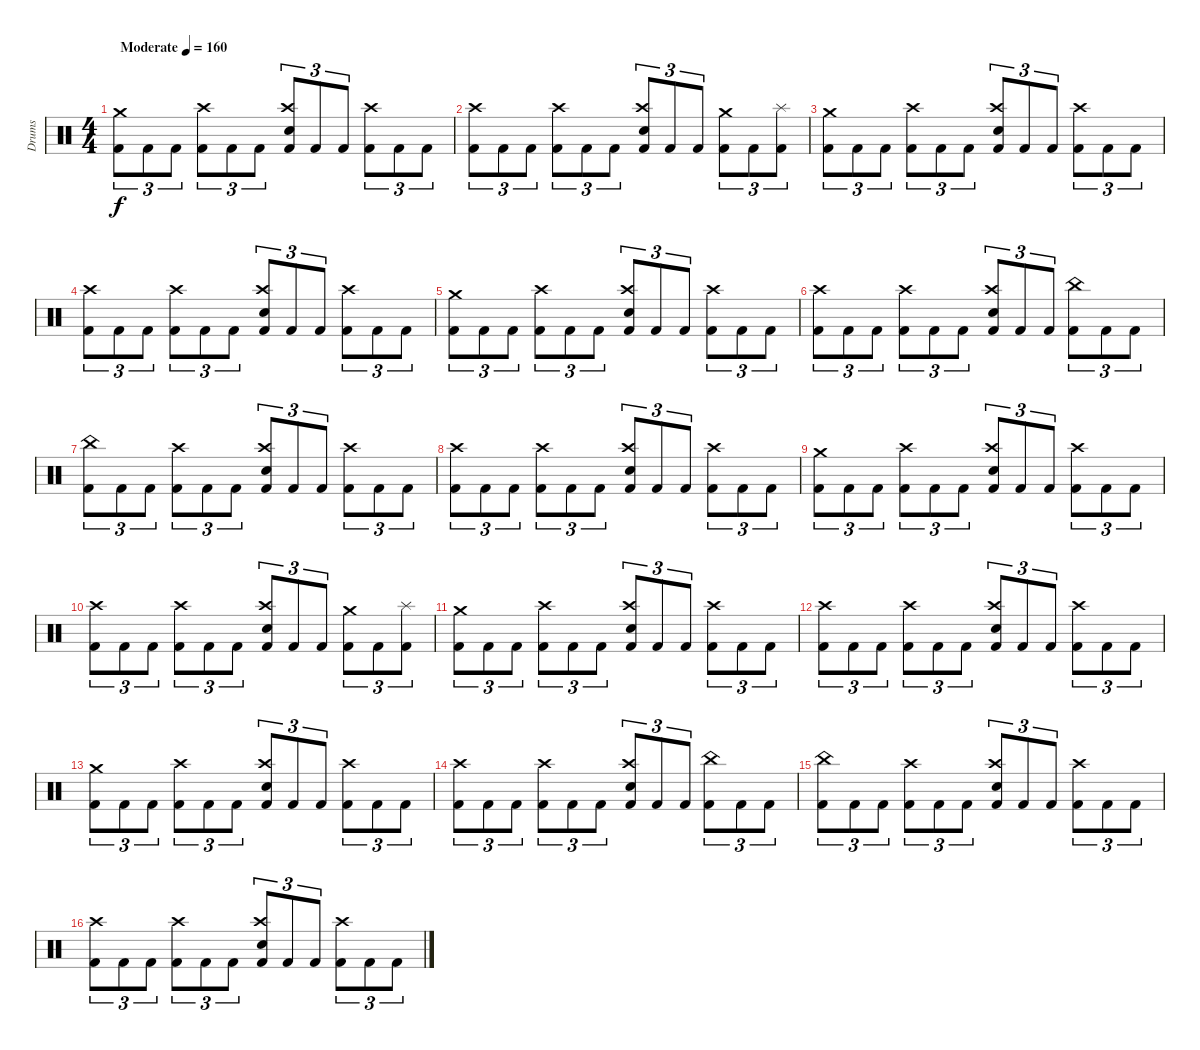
\track ("Drums" "Drums") {instrument percussion}
\staff
\articulation defaults
\ts (4 4)
\tempo (160 "Moderate")
\clef neutral
\ks c
("Crash medium (hit)" "Kick (hit) 2").8{tu (3 2) dy f} "Kick (hit) 2".8{tu (3 2)} "Kick (hit) 2".8{tu (3 2)} ("Crash high (hit)" "Kick (hit) 2").8{tu (3 2)} "Kick (hit) 2".8{tu (3 2)} "Kick (hit) 2".8{tu (3 2)} ("Crash high (hit)" "Electric Snare (hit)" "Kick (hit) 2").8{tu (3 2)} "Kick (hit) 2".8{tu (3 2)} "Kick (hit) 2".8{tu (3 2)} ("Crash high (hit)" "Kick (hit) 2").8{tu (3 2)} "Kick (hit) 2".8{tu (3 2)} "Kick (hit) 2".8{tu (3 2)} |
("Crash high (hit)" "Kick (hit) 2").8{tu (3 2)} "Kick (hit) 2".8{tu (3 2)} "Kick (hit) 2".8{tu (3 2)} ("Crash high (hit)" "Kick (hit) 2").8{tu (3 2)} "Kick (hit) 2".8{tu (3 2)} "Kick (hit) 2".8{tu (3 2)} ("Crash high (hit)" "Electric Snare (hit)" "Kick (hit) 2").8{tu (3 2)} "Kick (hit) 2".8{tu (3 2)} "Kick (hit) 2".8{tu (3 2)} ("Crash medium (hit)" "Kick (hit) 2").8{tu (3 2)} "Kick (hit) 2".8{tu (3 2)} ("Splash (hit)" "Kick (hit) 2").8{tu (3 2)} |
("Crash medium (hit)" "Kick (hit) 2").8{tu (3 2)} "Kick (hit) 2".8{tu (3 2)} "Kick (hit) 2".8{tu (3 2)} ("Crash high (hit)" "Kick (hit) 2").8{tu (3 2)} "Kick (hit) 2".8{tu (3 2)} "Kick (hit) 2".8{tu (3 2)} ("Crash high (hit)" "Electric Snare (hit)" "Kick (hit) 2").8{tu (3 2)} "Kick (hit) 2".8{tu (3 2)} "Kick (hit) 2".8{tu (3 2)} ("Crash high (hit)" "Kick (hit) 2").8{tu (3 2)} "Kick (hit) 2".8{tu (3 2)} "Kick (hit) 2".8{tu (3 2)} |
("Crash high (hit)" "Kick (hit) 2").8{tu (3 2)} "Kick (hit) 2".8{tu (3 2)} "Kick (hit) 2".8{tu (3 2)} ("Crash high (hit)" "Kick (hit) 2").8{tu (3 2)} "Kick (hit) 2".8{tu (3 2)} "Kick (hit) 2".8{tu (3 2)} ("Crash high (hit)" "Electric Snare (hit)" "Kick (hit) 2").8{tu (3 2)} "Kick (hit) 2".8{tu (3 2)} "Kick (hit) 2".8{tu (3 2)} ("Crash high (hit)" "Kick (hit) 2").8{tu (3 2)} "Kick (hit) 2".8{tu (3 2)} "Kick (hit) 2".8{tu (3 2)} |
("Crash medium (hit)" "Kick (hit) 2").8{tu (3 2)} "Kick (hit) 2".8{tu (3 2)} "Kick (hit) 2".8{tu (3 2)} ("Crash high (hit)" "Kick (hit) 2").8{tu (3 2)} "Kick (hit) 2".8{tu (3 2)} "Kick (hit) 2".8{tu (3 2)} ("Crash high (hit)" "Electric Snare (hit)" "Kick (hit) 2").8{tu (3 2)} "Kick (hit) 2".8{tu (3 2)} "Kick (hit) 2".8{tu (3 2)} ("Crash high (hit)" "Kick (hit) 2").8{tu (3 2)} "Kick (hit) 2".8{tu (3 2)} "Kick (hit) 2".8{tu (3 2)} |
("Crash high (hit)" "Kick (hit) 2").8{tu (3 2)} "Kick (hit) 2".8{tu (3 2)} "Kick (hit) 2".8{tu (3 2)} ("Crash high (hit)" "Kick (hit) 2").8{tu (3 2)} "Kick (hit) 2".8{tu (3 2)} "Kick (hit) 2".8{tu (3 2)} ("Crash high (hit)" "Electric Snare (hit)" "Kick (hit) 2").8{tu (3 2)} "Kick (hit) 2".8{tu (3 2)} "Kick (hit) 2".8{tu (3 2)} ("China (hit)" "Kick (hit) 2").8{tu (3 2)} "Kick (hit) 2".8{tu (3 2)} "Kick (hit) 2".8{tu (3 2)} |
("China (hit)" "Kick (hit) 2").8{tu (3 2)} "Kick (hit) 2".8{tu (3 2)} "Kick (hit) 2".8{tu (3 2)} ("Crash high (hit)" "Kick (hit) 2").8{tu (3 2)} "Kick (hit) 2".8{tu (3 2)} "Kick (hit) 2".8{tu (3 2)} ("Crash high (hit)" "Electric Snare (hit)" "Kick (hit) 2").8{tu (3 2)} "Kick (hit) 2".8{tu (3 2)} "Kick (hit) 2".8{tu (3 2)} ("Crash high (hit)" "Kick (hit) 2").8{tu (3 2)} "Kick (hit) 2".8{tu (3 2)} "Kick (hit) 2".8{tu (3 2)} |
("Crash high (hit)" "Kick (hit) 2").8{tu (3 2)} "Kick (hit) 2".8{tu (3 2)} "Kick (hit) 2".8{tu (3 2)} ("Crash high (hit)" "Kick (hit) 2").8{tu (3 2)} "Kick (hit) 2".8{tu (3 2)} "Kick (hit) 2".8{tu (3 2)} ("Crash high (hit)" "Electric Snare (hit)" "Kick (hit) 2").8{tu (3 2)} "Kick (hit) 2".8{tu (3 2)} "Kick (hit) 2".8{tu (3 2)} ("Crash high (hit)" "Kick (hit) 2").8{tu (3 2)} "Kick (hit) 2".8{tu (3 2)} "Kick (hit) 2".8{tu (3 2)} |
("Crash medium (hit)" "Kick (hit) 2").8{tu (3 2)} "Kick (hit) 2".8{tu (3 2)} "Kick (hit) 2".8{tu (3 2)} ("Crash high (hit)" "Kick (hit) 2").8{tu (3 2)} "Kick (hit) 2".8{tu (3 2)} "Kick (hit) 2".8{tu (3 2)} ("Crash high (hit)" "Electric Snare (hit)" "Kick (hit) 2").8{tu (3 2)} "Kick (hit) 2".8{tu (3 2)} "Kick (hit) 2".8{tu (3 2)} ("Crash high (hit)" "Kick (hit) 2").8{tu (3 2)} "Kick (hit) 2".8{tu (3 2)} "Kick (hit) 2".8{tu (3 2)} |
("Crash high (hit)" "Kick (hit) 2").8{tu (3 2)} "Kick (hit) 2".8{tu (3 2)} "Kick (hit) 2".8{tu (3 2)} ("Crash high (hit)" "Kick (hit) 2").8{tu (3 2)} "Kick (hit) 2".8{tu (3 2)} "Kick (hit) 2".8{tu (3 2)} ("Crash high (hit)" "Electric Snare (hit)" "Kick (hit) 2").8{tu (3 2)} "Kick (hit) 2".8{tu (3 2)} "Kick (hit) 2".8{tu (3 2)} ("Crash medium (hit)" "Kick (hit) 2").8{tu (3 2)} "Kick (hit) 2".8{tu (3 2)} ("Splash (hit)" "Kick (hit) 2").8{tu (3 2)} |
("Crash medium (hit)" "Kick (hit) 2").8{tu (3 2)} "Kick (hit) 2".8{tu (3 2)} "Kick (hit) 2".8{tu (3 2)} ("Crash high (hit)" "Kick (hit) 2").8{tu (3 2)} "Kick (hit) 2".8{tu (3 2)} "Kick (hit) 2".8{tu (3 2)} ("Crash high (hit)" "Electric Snare (hit)" "Kick (hit) 2").8{tu (3 2)} "Kick (hit) 2".8{tu (3 2)} "Kick (hit) 2".8{tu (3 2)} ("Crash high (hit)" "Kick (hit) 2").8{tu (3 2)} "Kick (hit) 2".8{tu (3 2)} "Kick (hit) 2".8{tu (3 2)} |
("Crash high (hit)" "Kick (hit) 2").8{tu (3 2)} "Kick (hit) 2".8{tu (3 2)} "Kick (hit) 2".8{tu (3 2)} ("Crash high (hit)" "Kick (hit) 2").8{tu (3 2)} "Kick (hit) 2".8{tu (3 2)} "Kick (hit) 2".8{tu (3 2)} ("Crash high (hit)" "Electric Snare (hit)" "Kick (hit) 2").8{tu (3 2)} "Kick (hit) 2".8{tu (3 2)} "Kick (hit) 2".8{tu (3 2)} ("Crash high (hit)" "Kick (hit) 2").8{tu (3 2)} "Kick (hit) 2".8{tu (3 2)} "Kick (hit) 2".8{tu (3 2)} |
("Crash medium (hit)" "Kick (hit) 2").8{tu (3 2)} "Kick (hit) 2".8{tu (3 2)} "Kick (hit) 2".8{tu (3 2)} ("Crash high (hit)" "Kick (hit) 2").8{tu (3 2)} "Kick (hit) 2".8{tu (3 2)} "Kick (hit) 2".8{tu (3 2)} ("Crash high (hit)" "Electric Snare (hit)" "Kick (hit) 2").8{tu (3 2)} "Kick (hit) 2".8{tu (3 2)} "Kick (hit) 2".8{tu (3 2)} ("Crash high (hit)" "Kick (hit) 2").8{tu (3 2)} "Kick (hit) 2".8{tu (3 2)} "Kick (hit) 2".8{tu (3 2)} |
("Crash high (hit)" "Kick (hit) 2").8{tu (3 2)} "Kick (hit) 2".8{tu (3 2)} "Kick (hit) 2".8{tu (3 2)} ("Crash high (hit)" "Kick (hit) 2").8{tu (3 2)} "Kick (hit) 2".8{tu (3 2)} "Kick (hit) 2".8{tu (3 2)} ("Crash high (hit)" "Electric Snare (hit)" "Kick (hit) 2").8{tu (3 2)} "Kick (hit) 2".8{tu (3 2)} "Kick (hit) 2".8{tu (3 2)} ("China (hit)" "Kick (hit) 2").8{tu (3 2)} "Kick (hit) 2".8{tu (3 2)} "Kick (hit) 2".8{tu (3 2)} |
("China (hit)" "Kick (hit) 2").8{tu (3 2)} "Kick (hit) 2".8{tu (3 2)} "Kick (hit) 2".8{tu (3 2)} ("Crash high (hit)" "Kick (hit) 2").8{tu (3 2)} "Kick (hit) 2".8{tu (3 2)} "Kick (hit) 2".8{tu (3 2)} ("Crash high (hit)" "Electric Snare (hit)" "Kick (hit) 2").8{tu (3 2)} "Kick (hit) 2".8{tu (3 2)} "Kick (hit) 2".8{tu (3 2)} ("Crash high (hit)" "Kick (hit) 2").8{tu (3 2)} "Kick (hit) 2".8{tu (3 2)} "Kick (hit) 2".8{tu (3 2)} |
("Crash high (hit)" "Kick (hit) 2").8{tu (3 2)} "Kick (hit) 2".8{tu (3 2)} "Kick (hit) 2".8{tu (3 2)} ("Crash high (hit)" "Kick (hit) 2").8{tu (3 2)} "Kick (hit) 2".8{tu (3 2)} "Kick (hit) 2".8{tu (3 2)} ("Crash high (hit)" "Electric Snare (hit)" "Kick (hit) 2").8{tu (3 2)} "Kick (hit) 2".8{tu (3 2)} "Kick (hit) 2".8{tu (3 2)} ("Crash high (hit)" "Kick (hit) 2").8{tu (3 2)} "Kick (hit) 2".8{tu (3 2)} "Kick (hit) 2".8{tu (3 2)}
